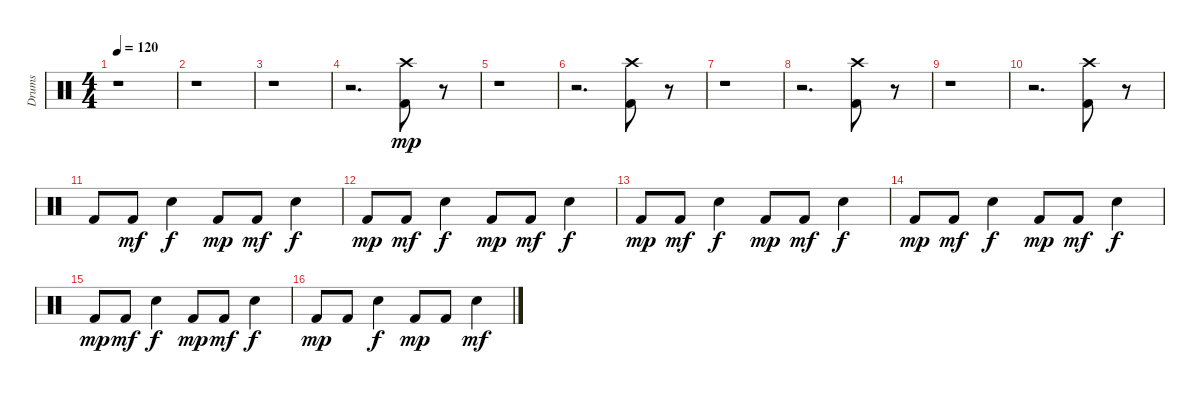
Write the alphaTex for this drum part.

\track ("Drums" "Drums") {instrument percussion}
\staff {score}
\articulation defaults
\ts (4 4)
\tempo 120
\clef neutral
\ks c
r.1{dy mp} |
r.1 |
r.1 |
r.2{d} ("Kick (hit) 2" "Crash high (hit)").8 r.8 |
r.1 |
r.2{d} ("Kick (hit) 2" "Crash high (hit)").8 r.8 |
r.1 |
r.2{d} ("Kick (hit) 2" "Crash high (hit)").8 r.8 |
r.1 |
r.2{d} ("Kick (hit) 2" "Crash high (hit)").8 r.8 |
"Kick (hit) 2".8 "Kick (hit) 2".8{dy mf} "Snare (hit) 2".4{dy f} "Kick (hit) 2".8{dy mp} "Kick (hit) 2".8{dy mf} "Snare (hit) 2".4{dy f} |
"Kick (hit) 2".8{dy mp} "Kick (hit) 2".8{dy mf} "Snare (hit) 2".4{dy f} "Kick (hit) 2".8{dy mp} "Kick (hit) 2".8{dy mf} "Snare (hit) 2".4{dy f} |
"Kick (hit) 2".8{dy mp} "Kick (hit) 2".8{dy mf} "Snare (hit) 2".4{dy f} "Kick (hit) 2".8{dy mp} "Kick (hit) 2".8{dy mf} "Snare (hit) 2".4{dy f} |
"Kick (hit) 2".8{dy mp} "Kick (hit) 2".8{dy mf} "Snare (hit) 2".4{dy f} "Kick (hit) 2".8{dy mp} "Kick (hit) 2".8{dy mf} "Snare (hit) 2".4{dy f} |
"Kick (hit) 2".8{dy mp} "Kick (hit) 2".8{dy mf} "Snare (hit) 2".4{dy f} "Kick (hit) 2".8{dy mp} "Kick (hit) 2".8{dy mf} "Snare (hit) 2".4{dy f} |
"Kick (hit) 2".8{dy mp} "Kick (hit) 2".8 "Snare (hit) 2".4{dy f} "Kick (hit) 2".8{dy mp} "Kick (hit) 2".8 "Snare (hit) 2".4{dy mf}
